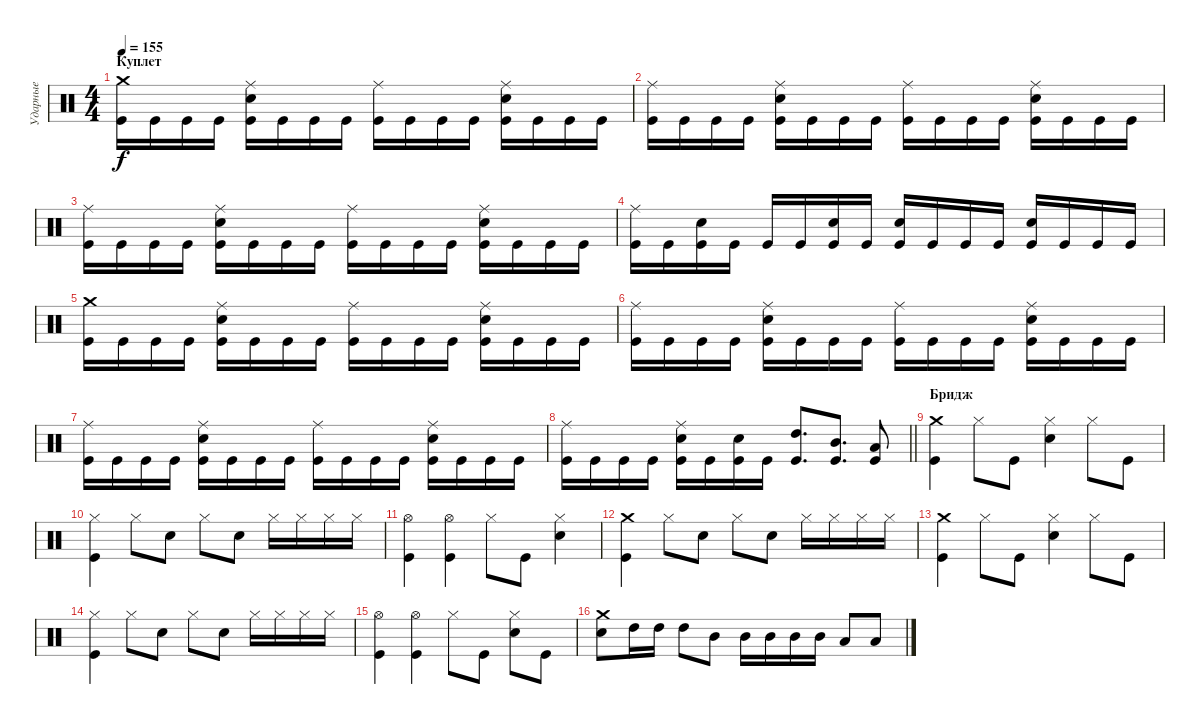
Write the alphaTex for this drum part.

\track ("Ударные" "Ударные") {instrument percussion}
\staff {score}
\articulation defaults
\ts (4 4)
\section ("" "Куплет")
\tempo 155
\clef neutral
\ks c
("Kick (hit)" "Crash medium (hit)").16{dy f} "Kick (hit)".16 "Kick (hit)".16 "Kick (hit)".16 ("Kick (hit)" "Snare (hit) 2" "Ride (middle)").16 "Kick (hit)".16 "Kick (hit)".16 "Kick (hit)".16 ("Kick (hit)" "Ride (middle)").16 "Kick (hit)".16 "Kick (hit)".16 "Kick (hit)".16 ("Kick (hit)" "Snare (hit) 2" "Ride (middle)").16 "Kick (hit)".16 "Kick (hit)".16 "Kick (hit)".16 |
("Kick (hit)" "Ride (middle)").16 "Kick (hit)".16 "Kick (hit)".16 "Kick (hit)".16 ("Kick (hit)" "Snare (hit) 2" "Ride (middle)").16 "Kick (hit)".16 "Kick (hit)".16 "Kick (hit)".16 ("Kick (hit)" "Ride (middle)").16 "Kick (hit)".16 "Kick (hit)".16 "Kick (hit)".16 ("Kick (hit)" "Snare (hit) 2" "Ride (middle)").16 "Kick (hit)".16 "Kick (hit)".16 "Kick (hit)".16 |
("Kick (hit)" "Ride (middle)").16 "Kick (hit)".16 "Kick (hit)".16 "Kick (hit)".16 ("Kick (hit)" "Snare (hit) 2" "Ride (middle)").16 "Kick (hit)".16 "Kick (hit)".16 "Kick (hit)".16 ("Kick (hit)" "Ride (middle)").16 "Kick (hit)".16 "Kick (hit)".16 "Kick (hit)".16 ("Kick (hit)" "Snare (hit) 2" "Ride (middle)").16 "Kick (hit)".16 "Kick (hit)".16 "Kick (hit)".16 |
("Kick (hit)" "Ride (middle)").16 "Kick (hit)".16 ("Kick (hit)" "Snare (hit) 2").16 "Kick (hit)".16 "Kick (hit)".16 "Kick (hit)".16 ("Kick (hit)" "Snare (hit) 2").16 "Kick (hit)".16 ("Kick (hit)" "Snare (hit) 2").16 "Kick (hit)".16 "Kick (hit)".16 "Kick (hit)".16 ("Kick (hit)" "Snare (hit) 2").16 "Kick (hit)".16 "Kick (hit)".16 "Kick (hit)".16 |
("Kick (hit)" "Crash medium (hit)").16 "Kick (hit)".16 "Kick (hit)".16 "Kick (hit)".16 ("Kick (hit)" "Snare (hit) 2" "Ride (middle)").16 "Kick (hit)".16 "Kick (hit)".16 "Kick (hit)".16 ("Kick (hit)" "Ride (middle)").16 "Kick (hit)".16 "Kick (hit)".16 "Kick (hit)".16 ("Kick (hit)" "Snare (hit) 2" "Ride (middle)").16 "Kick (hit)".16 "Kick (hit)".16 "Kick (hit)".16 |
("Kick (hit)" "Ride (middle)").16 "Kick (hit)".16 "Kick (hit)".16 "Kick (hit)".16 ("Kick (hit)" "Snare (hit) 2" "Ride (middle)").16 "Kick (hit)".16 "Kick (hit)".16 "Kick (hit)".16 ("Kick (hit)" "Ride (middle)").16 "Kick (hit)".16 "Kick (hit)".16 "Kick (hit)".16 ("Kick (hit)" "Snare (hit) 2" "Ride (middle)").16 "Kick (hit)".16 "Kick (hit)".16 "Kick (hit)".16 |
("Kick (hit)" "Ride (middle)").16 "Kick (hit)".16 "Kick (hit)".16 "Kick (hit)".16 ("Kick (hit)" "Snare (hit) 2" "Ride (middle)").16 "Kick (hit)".16 "Kick (hit)".16 "Kick (hit)".16 ("Kick (hit)" "Ride (middle)").16 "Kick (hit)".16 "Kick (hit)".16 "Kick (hit)".16 ("Kick (hit)" "Snare (hit) 2" "Ride (middle)").16 "Kick (hit)".16 "Kick (hit)".16 "Kick (hit)".16 |
\barLineRight lightlight
("Kick (hit)" "Ride (middle)").16 "Kick (hit)".16 "Kick (hit)".16 "Kick (hit)".16 ("Kick (hit)" "Snare (hit) 2" "Ride (middle)").16 "Kick (hit)".16 ("Kick (hit)" "Snare (hit) 2").16 "Kick (hit)".16 ("Kick (hit)" "High Tom (hit)").8{d} ("Kick (hit)" "Mid Tom (hit)").8{d} ("Kick (hit)" "Low Tom (hit)").8 |
\section ("" "Бридж")
("Kick (hit)" "Crash medium (hit)").4 "Hi-Hat (closed)".8 "Kick (hit)".8 ("Snare (hit) 2" "Hi-Hat (closed)").4 "Hi-Hat (closed)".8 "Kick (hit)".8 |
("Kick (hit)" "Hi-Hat (closed)").4 "Hi-Hat (closed)".8 "Snare (hit) 2".8 "Hi-Hat (closed)".8 "Snare (hit) 2".8 "Hi-Hat (closed)".16 "Hi-Hat (closed)".16 "Hi-Hat (closed)".16 "Hi-Hat (closed)".16 |
("Kick (hit)" "Hi-Hat (open)").4 ("Kick (hit)" "Hi-Hat (open)").4 "Hi-Hat (closed)".8 "Kick (hit)".8 ("Snare (hit) 2" "Hi-Hat (closed)").4 |
("Kick (hit)" "Crash medium (hit)").4 "Hi-Hat (closed)".8 "Snare (hit) 2".8 "Hi-Hat (closed)".8 "Snare (hit) 2".8 "Hi-Hat (closed)".16 "Hi-Hat (closed)".16 "Hi-Hat (closed)".16 "Hi-Hat (closed)".16 |
("Kick (hit)" "Crash medium (hit)").4 "Hi-Hat (closed)".8 "Kick (hit)".8 ("Snare (hit) 2" "Hi-Hat (closed)").4 "Hi-Hat (closed)".8 "Kick (hit)".8 |
("Kick (hit)" "Hi-Hat (closed)").4 "Hi-Hat (closed)".8 "Snare (hit) 2".8 "Hi-Hat (closed)".8 "Snare (hit) 2".8 "Hi-Hat (closed)".16 "Hi-Hat (closed)".16 "Hi-Hat (closed)".16 "Hi-Hat (closed)".16 |
("Kick (hit)" "Hi-Hat (open)").4 ("Kick (hit)" "Hi-Hat (open)").4 "Hi-Hat (closed)".8 "Kick (hit)".8 ("Snare (hit) 2" "Hi-Hat (closed)").8 "Kick (hit)".8 |
("Snare (hit) 2" "Crash medium (hit)").8 "High Tom (hit)".16 "High Tom (hit)".16 "High Tom (hit)".8 "Mid Tom (hit)".8 "Mid Tom (hit)".16 "Mid Tom (hit)".16 "Mid Tom (hit)".16 "Mid Tom (hit)".16 "Low Tom (hit)".8 "Low Tom (hit)".8
